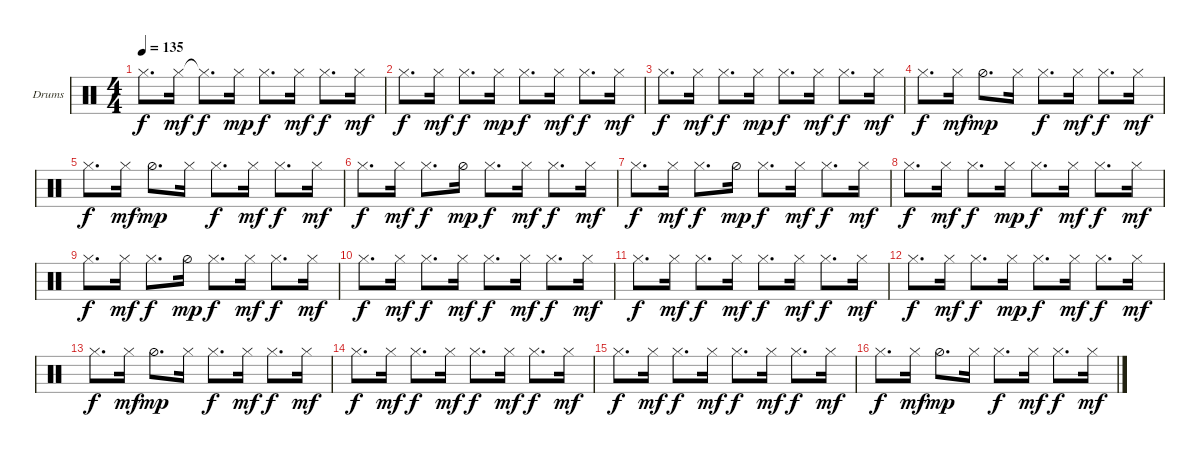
\bracketExtendMode groupsimilarinstruments
\firstSystemTrackNameOrientation horizontal
\otherSystemsTrackNameOrientation horizontal
\track ("HH" "Drums") {instrument percussion}
\staff {score}
\articulation defaults
\ts (4 4)
\tempo 135
\clef neutral
\ks c "Hi-Hat (closed)".8{d dy f} "Hi-Hat (closed)".16{dy mf} "Hi-Hat (closed)"{t}.8{d dy f} "Hi-Hat (closed)".16{dy mp} "Hi-Hat (closed)".8{d dy f} "Hi-Hat (closed)".16{dy mf} "Hi-Hat (closed)".8{d dy f} "Hi-Hat (closed)".16{dy mf}
|
"Hi-Hat (closed)".8{d dy f} "Hi-Hat (closed)".16{dy mf} "Hi-Hat (closed)".8{d dy f} "Hi-Hat (closed)".16{dy mp} "Hi-Hat (closed)".8{d dy f} "Hi-Hat (closed)".16{dy mf} "Hi-Hat (closed)".8{d dy f} "Hi-Hat (closed)".16{dy mf} |
"Hi-Hat (closed)".8{d dy f} "Hi-Hat (closed)".16{dy mf} "Hi-Hat (closed)".8{d dy f} "Hi-Hat (closed)".16{dy mp} "Hi-Hat (closed)".8{d dy f} "Hi-Hat (closed)".16{dy mf} "Hi-Hat (closed)".8{d dy f} "Hi-Hat (closed)".16{dy mf} |
"Hi-Hat (closed)".8{d dy f} "Hi-Hat (closed)".16{dy mf} "Hi-Hat (half)".8{d dy mp} "Hi-Hat (closed)".16 "Hi-Hat (closed)".8{d dy f} "Hi-Hat (closed)".16{dy mf} "Hi-Hat (closed)".8{d dy f} "Hi-Hat (closed)".16{dy mf} |
"Hi-Hat (closed)".8{d dy f} "Hi-Hat (closed)".16{dy mf} "Hi-Hat (half)".8{d dy mp} "Hi-Hat (closed)".16 "Hi-Hat (closed)".8{d dy f} "Hi-Hat (closed)".16{dy mf} "Hi-Hat (closed)".8{d dy f} "Hi-Hat (closed)".16{dy mf} |
"Hi-Hat (closed)".8{d dy f} "Hi-Hat (closed)".16{dy mf} "Hi-Hat (closed)".8{d dy f} "Hi-Hat (half)".16{dy mp} "Hi-Hat (closed)".8{d dy f} "Hi-Hat (closed)".16{dy mf} "Hi-Hat (closed)".8{d dy f} "Hi-Hat (closed)".16{dy mf} |
"Hi-Hat (closed)".8{d dy f} "Hi-Hat (closed)".16{dy mf} "Hi-Hat (closed)".8{d dy f} "Hi-Hat (half)".16{dy mp} "Hi-Hat (closed)".8{d dy f} "Hi-Hat (closed)".16{dy mf} "Hi-Hat (closed)".8{d dy f} "Hi-Hat (closed)".16{dy mf} |
"Hi-Hat (closed)".8{d dy f} "Hi-Hat (closed)".16{dy mf} "Hi-Hat (closed)".8{d dy f} "Hi-Hat (closed)".16{dy mp} "Hi-Hat (closed)".8{d dy f} "Hi-Hat (closed)".16{dy mf} "Hi-Hat (closed)".8{d dy f} "Hi-Hat (closed)".16{dy mf} |
"Hi-Hat (closed)".8{d dy f} "Hi-Hat (closed)".16{dy mf} "Hi-Hat (closed)".8{d dy f} "Hi-Hat (half)".16{dy mp} "Hi-Hat (closed)".8{d dy f} "Hi-Hat (closed)".16{dy mf} "Hi-Hat (closed)".8{d dy f} "Hi-Hat (closed)".16{dy mf} |
"Hi-Hat (closed)".8{d dy f} "Hi-Hat (closed)".16{dy mf} "Hi-Hat (closed)".8{d dy f} "Hi-Hat (closed)".16{dy mf} "Hi-Hat (closed)".8{d dy f} "Hi-Hat (closed)".16{dy mf} "Hi-Hat (closed)".8{d dy f} "Hi-Hat (closed)".16{dy mf} |
"Hi-Hat (closed)".8{d dy f} "Hi-Hat (closed)".16{dy mf} "Hi-Hat (closed)".8{d dy f} "Hi-Hat (closed)".16{dy mf} "Hi-Hat (closed)".8{d dy f} "Hi-Hat (closed)".16{dy mf} "Hi-Hat (closed)".8{d dy f} "Hi-Hat (closed)".16{dy mf} |
"Hi-Hat (closed)".8{d dy f} "Hi-Hat (closed)".16{dy mf} "Hi-Hat (closed)".8{d dy f} "Hi-Hat (closed)".16{dy mp} "Hi-Hat (closed)".8{d dy f} "Hi-Hat (closed)".16{dy mf} "Hi-Hat (closed)".8{d dy f} "Hi-Hat (closed)".16{dy mf} |
"Hi-Hat (closed)".8{d dy f} "Hi-Hat (closed)".16{dy mf} "Hi-Hat (half)".8{d dy mp} "Hi-Hat (closed)".16 "Hi-Hat (closed)".8{d dy f} "Hi-Hat (closed)".16{dy mf} "Hi-Hat (closed)".8{d dy f} "Hi-Hat (closed)".16{dy mf} |
"Hi-Hat (closed)".8{d dy f} "Hi-Hat (closed)".16{dy mf} "Hi-Hat (closed)".8{d dy f} "Hi-Hat (closed)".16{dy mf} "Hi-Hat (closed)".8{d dy f} "Hi-Hat (closed)".16{dy mf} "Hi-Hat (closed)".8{d dy f} "Hi-Hat (closed)".16{dy mf} |
"Hi-Hat (closed)".8{d dy f} "Hi-Hat (closed)".16{dy mf} "Hi-Hat (closed)".8{d dy f} "Hi-Hat (closed)".16{dy mf} "Hi-Hat (closed)".8{d dy f} "Hi-Hat (closed)".16{dy mf} "Hi-Hat (closed)".8{d dy f} "Hi-Hat (closed)".16{dy mf} |
"Hi-Hat (closed)".8{d dy f} "Hi-Hat (closed)".16{dy mf} "Hi-Hat (half)".8{d dy mp} "Hi-Hat (closed)".16 "Hi-Hat (closed)".8{d dy f} "Hi-Hat (closed)".16{dy mf} "Hi-Hat (closed)".8{d dy f} "Hi-Hat (closed)".16{dy mf}
